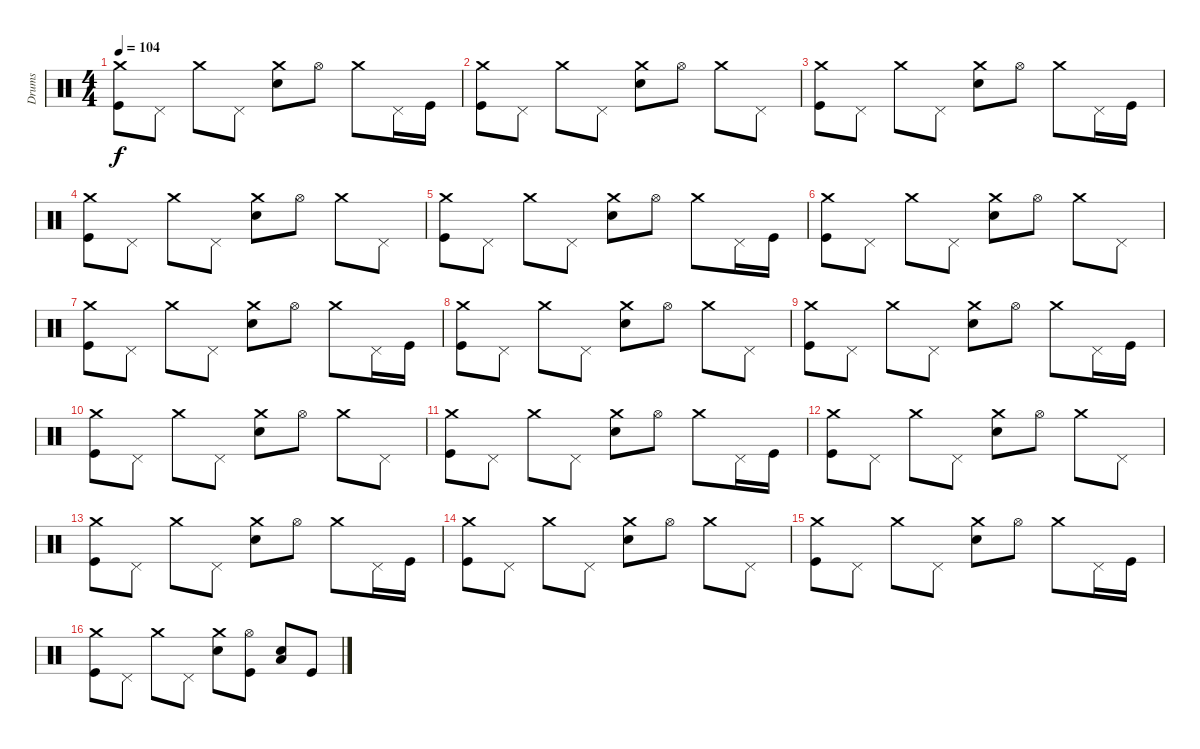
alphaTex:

\track ("Drums" "Drums") {instrument percussion}
\staff {score}
\articulation defaults
\ts (4 4)
\tempo 104
\clef neutral
\ks c
("Crash medium (hit)" "Kick (hit)").8{dy f} "Pedal Hi-Hat (hit)".8 "Crash medium (hit)".8 "Pedal Hi-Hat (hit)".8 ("Crash medium (hit)" "Electric Snare (hit)").8 "Hi-Hat (open)".8 "Crash medium (hit)".8 "Pedal Hi-Hat (hit)".16 "Kick (hit)".16 |
("Crash medium (hit)" "Kick (hit)").8 "Pedal Hi-Hat (hit)".8 "Crash medium (hit)".8 "Pedal Hi-Hat (hit)".8 ("Crash medium (hit)" "Snare (hit) 2").8 "Hi-Hat (open)".8 "Crash medium (hit)".8 "Pedal Hi-Hat (hit)".8 |
("Crash medium (hit)" "Kick (hit)").8 "Pedal Hi-Hat (hit)".8 "Crash medium (hit)".8 "Pedal Hi-Hat (hit)".8 ("Crash medium (hit)" "Snare (hit) 2").8 "Hi-Hat (open)".8 "Crash medium (hit)".8 "Pedal Hi-Hat (hit)".16 "Kick (hit)".16 |
("Crash medium (hit)" "Kick (hit)").8 "Pedal Hi-Hat (hit)".8 "Crash medium (hit)".8 "Pedal Hi-Hat (hit)".8 ("Crash medium (hit)" "Snare (hit) 2").8 "Hi-Hat (open)".8 "Crash medium (hit)".8 "Pedal Hi-Hat (hit)".8 |
("Crash medium (hit)" "Kick (hit)").8 "Pedal Hi-Hat (hit)".8 "Crash medium (hit)".8 "Pedal Hi-Hat (hit)".8 ("Crash medium (hit)" "Snare (hit) 2").8 "Hi-Hat (open)".8 "Crash medium (hit)".8 "Pedal Hi-Hat (hit)".16 "Kick (hit)".16 |
("Crash medium (hit)" "Kick (hit)").8 "Pedal Hi-Hat (hit)".8 "Crash medium (hit)".8 "Pedal Hi-Hat (hit)".8 ("Crash medium (hit)" "Snare (hit) 2").8 "Hi-Hat (open)".8 "Crash medium (hit)".8 "Pedal Hi-Hat (hit)".8 |
("Crash medium (hit)" "Kick (hit)").8 "Pedal Hi-Hat (hit)".8 "Crash medium (hit)".8 "Pedal Hi-Hat (hit)".8 ("Crash medium (hit)" "Electric Snare (hit)").8 "Hi-Hat (open)".8 "Crash medium (hit)".8 "Pedal Hi-Hat (hit)".16 "Kick (hit)".16 |
("Crash medium (hit)" "Kick (hit)").8 "Pedal Hi-Hat (hit)".8 "Crash medium (hit)".8 "Pedal Hi-Hat (hit)".8 ("Crash medium (hit)" "Snare (hit) 2").8 "Hi-Hat (open)".8 "Crash medium (hit)".8 "Pedal Hi-Hat (hit)".8 |
("Crash medium (hit)" "Kick (hit)").8 "Pedal Hi-Hat (hit)".8 "Crash medium (hit)".8 "Pedal Hi-Hat (hit)".8 ("Crash medium (hit)" "Snare (hit) 2").8 "Hi-Hat (open)".8 "Crash medium (hit)".8 "Pedal Hi-Hat (hit)".16 "Kick (hit)".16 |
("Crash medium (hit)" "Kick (hit)").8 "Pedal Hi-Hat (hit)".8 "Crash medium (hit)".8 "Pedal Hi-Hat (hit)".8 ("Crash medium (hit)" "Snare (hit) 2").8 "Hi-Hat (open)".8 "Crash medium (hit)".8 "Pedal Hi-Hat (hit)".8 |
("Crash medium (hit)" "Kick (hit)").8 "Pedal Hi-Hat (hit)".8 "Crash medium (hit)".8 "Pedal Hi-Hat (hit)".8 ("Crash medium (hit)" "Electric Snare (hit)").8 "Hi-Hat (open)".8 "Crash medium (hit)".8 "Pedal Hi-Hat (hit)".16 "Kick (hit)".16 |
("Crash medium (hit)" "Kick (hit)").8 "Pedal Hi-Hat (hit)".8 "Crash medium (hit)".8 "Pedal Hi-Hat (hit)".8 ("Crash medium (hit)" "Snare (hit) 2").8 "Hi-Hat (open)".8 "Crash medium (hit)".8 "Pedal Hi-Hat (hit)".8 |
("Crash medium (hit)" "Kick (hit)").8 "Pedal Hi-Hat (hit)".8 "Crash medium (hit)".8 "Pedal Hi-Hat (hit)".8 ("Crash medium (hit)" "Snare (hit) 2").8 "Hi-Hat (open)".8 "Crash medium (hit)".8 "Pedal Hi-Hat (hit)".16 "Kick (hit)".16 |
("Crash medium (hit)" "Kick (hit)").8 "Pedal Hi-Hat (hit)".8 "Crash medium (hit)".8 "Pedal Hi-Hat (hit)".8 ("Crash medium (hit)" "Snare (hit) 2").8 "Hi-Hat (open)".8 "Crash medium (hit)".8 "Pedal Hi-Hat (hit)".8 |
("Crash medium (hit)" "Kick (hit)").8 "Pedal Hi-Hat (hit)".8 "Crash medium (hit)".8 "Pedal Hi-Hat (hit)".8 ("Crash medium (hit)" "Snare (hit) 2").8 "Hi-Hat (open)".8 "Crash medium (hit)".8 "Pedal Hi-Hat (hit)".16 "Kick (hit)".16 |
("Crash medium (hit)" "Kick (hit)").8 "Pedal Hi-Hat (hit)".8 "Crash medium (hit)".8 "Pedal Hi-Hat (hit)".8 ("Crash medium (hit)" "Snare (hit) 2").8 ("Hi-Hat (open)" "Kick (hit)").8 ("Low Floor Tom (hit)" "Electric Snare (hit)").8 "Kick (hit)".8
